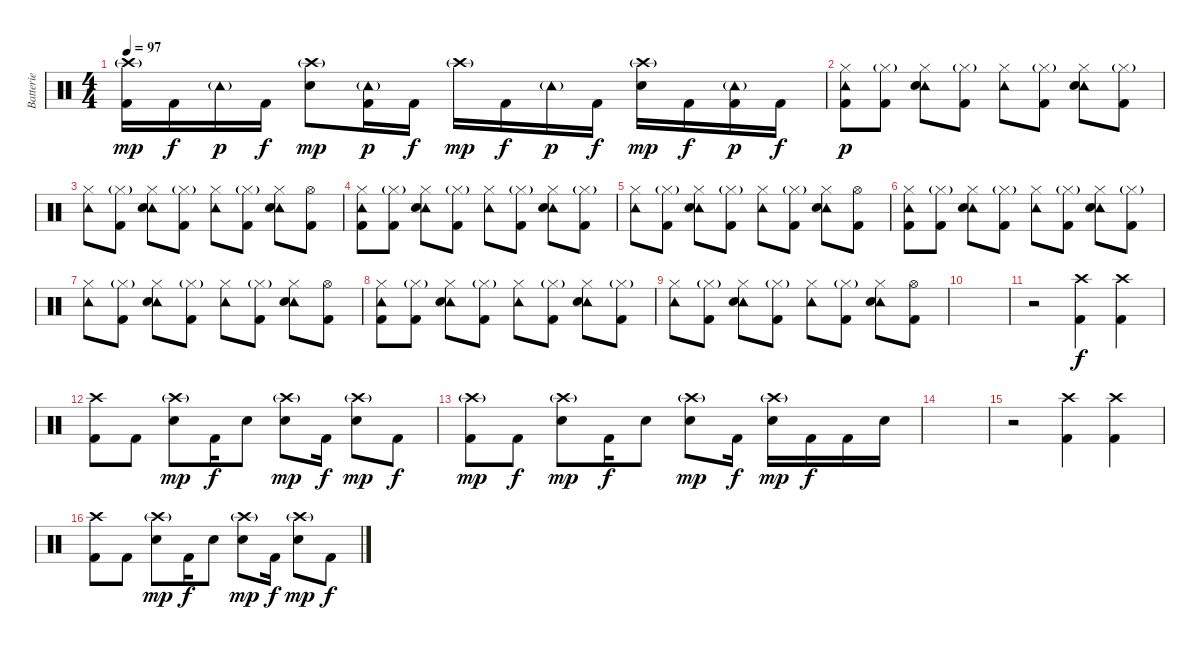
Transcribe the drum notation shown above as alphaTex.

\track ("Batterie" "Batterie") {instrument percussion}
\staff {score}
\articulation defaults
\ts (4 4)
\tempo 97
\clef neutral
\ks c
("Crash high (hit)"{g} "Kick (hit) 2").16{dy mp} "Kick (hit) 2".16{dy f} "Tambourine (hit)"{g}.16{dy p} "Kick (hit) 2".16{dy f} ("Crash high (hit)"{g} "Snare (hit) 2").8{dy mp} ("Tambourine (hit)"{g} "Kick (hit) 2").16{dy p} "Kick (hit) 2".16{dy f} "Crash high (hit)"{g}.16{dy mp} "Kick (hit) 2".16{dy f} "Tambourine (hit)"{g}.16{dy p} "Kick (hit) 2".16{dy f} ("Crash high (hit)"{g} "Snare (hit) 2").16{dy mp} "Kick (hit) 2".16{dy f} ("Tambourine (hit)"{g} "Kick (hit) 2").16{dy p} "Kick (hit) 2".16{dy f} |
("Hi-Hat (closed)" "Tambourine (hit)" "Kick (hit) 2").8{dy p} ("Hi-Hat (closed)"{g} "Kick (hit) 2").8 ("Hi-Hat (closed)" "Tambourine (hit)" "Snare (hit) 2").8 ("Hi-Hat (closed)"{g} "Kick (hit) 2").8 ("Hi-Hat (closed)" "Tambourine (hit)").8 ("Hi-Hat (closed)"{g} "Kick (hit) 2").8 ("Hi-Hat (closed)" "Tambourine (hit)" "Snare (hit) 2").8 ("Hi-Hat (closed)"{g} "Kick (hit) 2").8 |
("Hi-Hat (closed)" "Tambourine (hit)").8 ("Hi-Hat (closed)"{g} "Kick (hit) 2").8 ("Hi-Hat (closed)" "Tambourine (hit)" "Snare (hit) 2").8 ("Hi-Hat (closed)"{g} "Kick (hit) 2").8 ("Hi-Hat (closed)" "Tambourine (hit)").8 ("Hi-Hat (closed)"{g} "Kick (hit) 2").8 ("Hi-Hat (closed)" "Tambourine (hit)" "Snare (hit) 2").8 ("Hi-Hat (open)" "Kick (hit) 2").8 |
("Hi-Hat (closed)" "Tambourine (hit)" "Kick (hit) 2").8 ("Hi-Hat (closed)"{g} "Kick (hit) 2").8 ("Hi-Hat (closed)" "Tambourine (hit)" "Snare (hit) 2").8 ("Hi-Hat (closed)"{g} "Kick (hit) 2").8 ("Hi-Hat (closed)" "Tambourine (hit)").8 ("Hi-Hat (closed)"{g} "Kick (hit) 2").8 ("Hi-Hat (closed)" "Tambourine (hit)" "Snare (hit) 2").8 ("Hi-Hat (closed)"{g} "Kick (hit) 2").8 |
("Hi-Hat (closed)" "Tambourine (hit)").8 ("Hi-Hat (closed)"{g} "Kick (hit) 2").8 ("Hi-Hat (closed)" "Tambourine (hit)" "Snare (hit) 2").8 ("Hi-Hat (closed)"{g} "Kick (hit) 2").8 ("Hi-Hat (closed)" "Tambourine (hit)").8 ("Hi-Hat (closed)"{g} "Kick (hit) 2").8 ("Hi-Hat (closed)" "Tambourine (hit)" "Snare (hit) 2").8 ("Hi-Hat (open)" "Kick (hit) 2").8 |
("Hi-Hat (closed)" "Tambourine (hit)" "Kick (hit) 2").8 ("Hi-Hat (closed)"{g} "Kick (hit) 2").8 ("Hi-Hat (closed)" "Tambourine (hit)" "Snare (hit) 2").8 ("Hi-Hat (closed)"{g} "Kick (hit) 2").8 ("Hi-Hat (closed)" "Tambourine (hit)").8 ("Hi-Hat (closed)"{g} "Kick (hit) 2").8 ("Hi-Hat (closed)" "Tambourine (hit)" "Snare (hit) 2").8 ("Hi-Hat (closed)"{g} "Kick (hit) 2").8 |
("Hi-Hat (closed)" "Tambourine (hit)").8 ("Hi-Hat (closed)"{g} "Kick (hit) 2").8 ("Hi-Hat (closed)" "Tambourine (hit)" "Snare (hit) 2").8 ("Hi-Hat (closed)"{g} "Kick (hit) 2").8 ("Hi-Hat (closed)" "Tambourine (hit)").8 ("Hi-Hat (closed)"{g} "Kick (hit) 2").8 ("Hi-Hat (closed)" "Tambourine (hit)" "Snare (hit) 2").8 ("Hi-Hat (open)" "Kick (hit) 2").8 |
("Hi-Hat (closed)" "Tambourine (hit)" "Kick (hit) 2").8 ("Hi-Hat (closed)"{g} "Kick (hit) 2").8 ("Hi-Hat (closed)" "Tambourine (hit)" "Snare (hit) 2").8 ("Hi-Hat (closed)"{g} "Kick (hit) 2").8 ("Hi-Hat (closed)" "Tambourine (hit)").8 ("Hi-Hat (closed)"{g} "Kick (hit) 2").8 ("Hi-Hat (closed)" "Tambourine (hit)" "Snare (hit) 2").8 ("Hi-Hat (closed)"{g} "Kick (hit) 2").8 |
("Hi-Hat (closed)" "Tambourine (hit)").8 ("Hi-Hat (closed)"{g} "Kick (hit) 2").8 ("Hi-Hat (closed)" "Tambourine (hit)" "Snare (hit) 2").8 ("Hi-Hat (closed)"{g} "Kick (hit) 2").8 ("Hi-Hat (closed)" "Tambourine (hit)").8 ("Hi-Hat (closed)"{g} "Kick (hit) 2").8 ("Hi-Hat (closed)" "Tambourine (hit)" "Snare (hit) 2").8 ("Hi-Hat (open)" "Kick (hit) 2").8 |
|
r.2 ("Crash high (hit)" "Kick (hit) 2").4{dy f} ("Crash high (hit)" "Kick (hit) 2").4 |
("Crash high (hit)" "Kick (hit) 2").8 "Kick (hit) 2".8 ("Crash high (hit)"{g} "Snare (hit) 2").8{dy mp} "Kick (hit) 2".16{dy f} "Snare (hit) 2".8 ("Crash high (hit)"{g} "Snare (hit) 2").8{dy mp} "Kick (hit) 2".16{dy f} ("Crash high (hit)"{g} "Snare (hit) 2").8{dy mp} "Kick (hit) 2".8{dy f} |
("Crash high (hit)"{g} "Kick (hit) 2").8{dy mp} "Kick (hit) 2".8{dy f} ("Crash high (hit)"{g} "Snare (hit) 2").8{dy mp} "Kick (hit) 2".16{dy f} "Snare (hit) 2".8 ("Crash high (hit)"{g} "Snare (hit) 2").8{dy mp} "Kick (hit) 2".16{dy f} ("Crash high (hit)"{g} "Snare (hit) 2").16{dy mp} "Kick (hit) 2".16{dy f} "Kick (hit) 2".16 "Snare (hit) 2".16 |
|
r.2 ("Crash high (hit)" "Kick (hit) 2").4 ("Crash high (hit)" "Kick (hit) 2").4 |
("Crash high (hit)" "Kick (hit) 2").8 "Kick (hit) 2".8 ("Crash high (hit)"{g} "Snare (hit) 2").8{dy mp} "Kick (hit) 2".16{dy f} "Snare (hit) 2".8 ("Crash high (hit)"{g} "Snare (hit) 2").8{dy mp} "Kick (hit) 2".16{dy f} ("Crash high (hit)"{g} "Snare (hit) 2").8{dy mp} "Kick (hit) 2".8{dy f}
